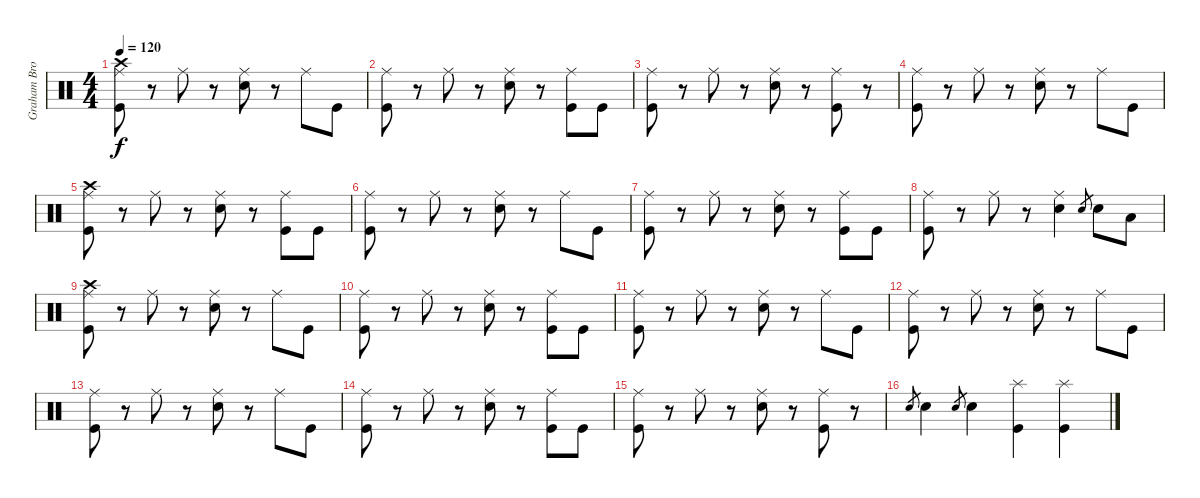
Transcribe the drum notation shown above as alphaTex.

\track ("Graham Broad (Drums)" "Graham Bro") {instrument percussion}
\staff {score}
\articulation defaults
\ts (4 4)
\tempo 120
\clef neutral
\ks c
("Crash high (hit)" "Ride (middle)" "Kick (hit)").8{dy f} r.8 "Ride (middle)".8 r.8 ("Ride (middle)" "Snare (hit) 2").8 r.8 "Ride (middle)".8 "Kick (hit)".8 |
("Ride (middle)" "Kick (hit)").8 r.8 "Ride (middle)".8 r.8 ("Ride (middle)" "Snare (hit) 2").8 r.8 ("Ride (middle)" "Kick (hit)").8 "Kick (hit)".8 |
("Ride (middle)" "Kick (hit)").8 r.8 "Ride (middle)".8 r.8 ("Ride (middle)" "Snare (hit) 2").8 r.8 ("Ride (middle)" "Kick (hit)").8 r.8 |
("Ride (middle)" "Kick (hit)").8 r.8 "Ride (middle)".8 r.8 ("Ride (middle)" "Snare (hit) 2").8 r.8 "Ride (middle)".8 "Kick (hit)".8 |
("Crash high (hit)" "Ride (middle)" "Kick (hit)").8 r.8 "Ride (middle)".8 r.8 ("Ride (middle)" "Snare (hit) 2").8 r.8 ("Ride (middle)" "Kick (hit)").8 "Kick (hit)".8 |
("Ride (middle)" "Kick (hit)").8 r.8 "Ride (middle)".8 r.8 ("Ride (middle)" "Snare (hit) 2").8 r.8 "Ride (middle)".8 "Kick (hit)".8 |
("Ride (middle)" "Kick (hit)").8 r.8 "Ride (middle)".8 r.8 ("Ride (middle)" "Snare (hit) 2").8 r.8 ("Ride (middle)" "Kick (hit)").8 "Kick (hit)".8 |
("Ride (middle)" "Kick (hit)").8 r.8 "Ride (middle)".8 r.8 ("Ride (middle)" "Snare (hit) 2").4 "Snare (hit) 2".8{gr} "Snare (hit) 2".8 "Low Floor Tom (hit)".8 |
("Crash high (hit)" "Ride (middle)" "Kick (hit)").8 r.8 "Ride (middle)".8 r.8 ("Ride (middle)" "Snare (hit) 2").8 r.8 "Ride (middle)".8 "Kick (hit)".8 |
("Ride (middle)" "Kick (hit)").8 r.8 "Ride (middle)".8 r.8 ("Ride (middle)" "Snare (hit) 2").8 r.8 ("Ride (middle)" "Kick (hit)").8 "Kick (hit)".8 |
("Ride (middle)" "Kick (hit)").8 r.8 "Ride (middle)".8 r.8 ("Ride (middle)" "Snare (hit) 2").8 r.8 "Ride (middle)".8 "Kick (hit)".8 |
("Ride (middle)" "Kick (hit)").8 r.8 "Ride (middle)".8 r.8 ("Ride (middle)" "Snare (hit) 2").8 r.8 "Ride (middle)".8 "Kick (hit)".8 |
("Ride (middle)" "Kick (hit)").8 r.8 "Ride (middle)".8 r.8 ("Ride (middle)" "Snare (hit) 2").8 r.8 "Ride (middle)".8 "Kick (hit)".8 |
("Ride (middle)" "Kick (hit)").8 r.8 "Ride (middle)".8 r.8 ("Ride (middle)" "Snare (hit) 2").8 r.8 ("Ride (middle)" "Kick (hit)").8 "Kick (hit)".8 |
("Ride (middle)" "Kick (hit)").8 r.8 "Ride (middle)".8 r.8 ("Ride (middle)" "Snare (hit) 2").8 r.8 ("Ride (middle)" "Kick (hit)").8 r.8 |
"Snare (hit) 2".8{gr} "Snare (hit) 2".4 "Snare (hit) 2".8{gr} "Snare (hit) 2".4 ("Splash (hit)" "Kick (hit)").4 ("Splash (hit)" "Kick (hit)").4
